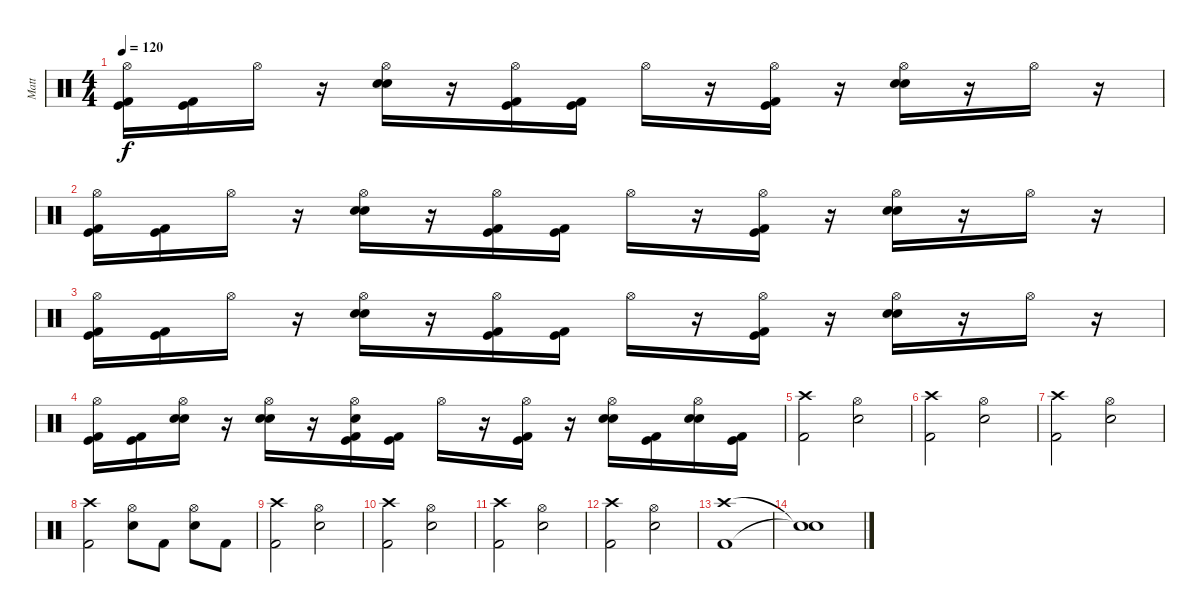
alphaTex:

\track ("Matt" "Matt") {instrument percussion}
\staff {score}
\articulation defaults
\ts (4 4)
\tempo 120
\clef neutral
\ks c
("Hi-Hat (open)" "Kick (hit)" "Kick (hit) 2").16{dy f} ("Kick (hit)" "Kick (hit) 2").16 "Hi-Hat (open)".16 r.16 ("Hi-Hat (open)" "Electric Snare (hit)" "Snare (hit) 2").16 r.16 ("Hi-Hat (open)" "Kick (hit)" "Kick (hit) 2").16 ("Kick (hit)" "Kick (hit) 2").16 "Hi-Hat (open)".16 r.16 ("Hi-Hat (open)" "Kick (hit)" "Kick (hit) 2").16 r.16 ("Hi-Hat (open)" "Electric Snare (hit)" "Snare (hit) 2").16 r.16 "Hi-Hat (open)".16 r.16 |
("Hi-Hat (open)" "Kick (hit)" "Kick (hit) 2").16 ("Kick (hit)" "Kick (hit) 2").16 "Hi-Hat (open)".16 r.16 ("Hi-Hat (open)" "Electric Snare (hit)" "Snare (hit) 2").16 r.16 ("Hi-Hat (open)" "Kick (hit)" "Kick (hit) 2").16 ("Kick (hit)" "Kick (hit) 2").16 "Hi-Hat (open)".16 r.16 ("Hi-Hat (open)" "Kick (hit)" "Kick (hit) 2").16 r.16 ("Hi-Hat (open)" "Electric Snare (hit)" "Snare (hit) 2").16 r.16 "Hi-Hat (open)".16 r.16 |
("Hi-Hat (open)" "Kick (hit)" "Kick (hit) 2").16 ("Kick (hit)" "Kick (hit) 2").16 "Hi-Hat (open)".16 r.16 ("Hi-Hat (open)" "Electric Snare (hit)" "Snare (hit) 2").16 r.16 ("Hi-Hat (open)" "Kick (hit)" "Kick (hit) 2").16 ("Kick (hit)" "Kick (hit) 2").16 "Hi-Hat (open)".16 r.16 ("Hi-Hat (open)" "Kick (hit)" "Kick (hit) 2").16 r.16 ("Hi-Hat (open)" "Electric Snare (hit)" "Snare (hit) 2").16 r.16 "Hi-Hat (open)".16 r.16 |
("Hi-Hat (open)" "Kick (hit)" "Kick (hit) 2").16 ("Kick (hit)" "Kick (hit) 2").16 ("Hi-Hat (open)" "Electric Snare (hit)" "Snare (hit) 2").16 r.16 ("Hi-Hat (open)" "Electric Snare (hit)" "Snare (hit) 2").16 r.16 ("Hi-Hat (open)" "Snare (hit)" "Kick (hit)" "Kick (hit) 2").16 ("Kick (hit)" "Kick (hit) 2").16 "Hi-Hat (open)".16 r.16 ("Hi-Hat (open)" "Kick (hit)" "Kick (hit) 2").16 r.16 ("Hi-Hat (open)" "Electric Snare (hit)" "Snare (hit) 2").16 ("Kick (hit)" "Kick (hit) 2").16 ("Hi-Hat (open)" "Electric Snare (hit)" "Snare (hit) 2").16 ("Kick (hit)" "Kick (hit) 2").16 |
("Crash high (hit)" "Kick (hit) 2").2 ("Hi-Hat (open)" "Snare (hit) 2").2 |
("Crash high (hit)" "Kick (hit) 2").2 ("Hi-Hat (open)" "Snare (hit) 2").2 |
("Crash high (hit)" "Kick (hit) 2").2 ("Hi-Hat (open)" "Snare (hit) 2").2 |
("Crash high (hit)" "Kick (hit) 2").2 ("Hi-Hat (open)" "Snare (hit) 2").8 "Kick (hit) 2".8 ("Hi-Hat (open)" "Snare (hit) 2").8 "Kick (hit) 2".8 |
("Crash high (hit)" "Kick (hit) 2").2 ("Hi-Hat (open)" "Snare (hit) 2").2 |
("Crash high (hit)" "Kick (hit) 2").2 ("Hi-Hat (open)" "Snare (hit) 2").2 |
("Crash high (hit)" "Kick (hit) 2").2 ("Hi-Hat (open)" "Snare (hit) 2").2 |
("Crash high (hit)" "Kick (hit) 2").2 ("Hi-Hat (open)" "Snare (hit) 2").2 |
("Crash high (hit)" "Kick (hit) 2").1 |
("Snare (hit)"{t} "Snare (hit)"{t}).1
